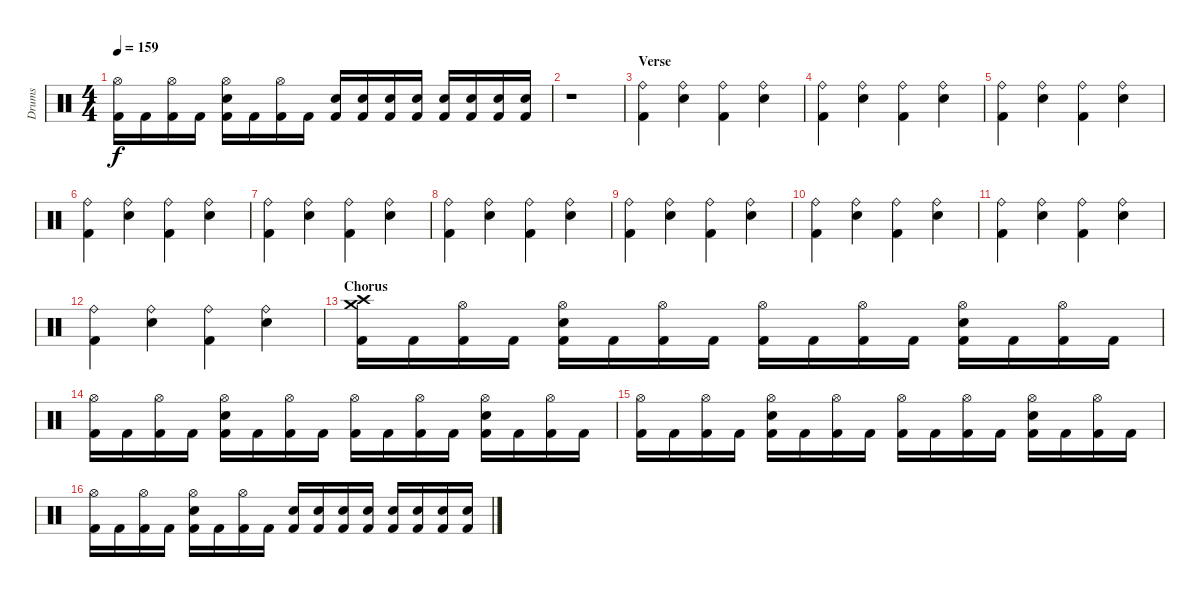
\track ("Drums" "Drums") {instrument percussion}
\staff {score}
\articulation defaults
\ts (4 4)
\tempo 159
\clef neutral
\ks c
("Hi-Hat (open)" "Kick (hit) 2").16{dy f} "Kick (hit) 2".16 ("Hi-Hat (open)" "Kick (hit) 2").16 "Kick (hit) 2".16 ("Hi-Hat (open)" "Electric Snare (hit)" "Kick (hit) 2").16 "Kick (hit) 2".16 ("Hi-Hat (open)" "Kick (hit) 2").16 "Kick (hit) 2".16 ("Electric Snare (hit)" "Kick (hit) 2").16 ("Electric Snare (hit)" "Kick (hit) 2").16 ("Electric Snare (hit)" "Kick (hit) 2").16 ("Electric Snare (hit)" "Kick (hit) 2").16 ("Electric Snare (hit)" "Kick (hit) 2").16 ("Electric Snare (hit)" "Kick (hit) 2").16 ("Electric Snare (hit)" "Kick (hit) 2").16 ("Electric Snare (hit)" "Kick (hit) 2").16 |
\section ("" "")
r.1 |
\section ("" "Verse")
("Ride (bell)" "Kick (hit) 2").4 ("Ride (bell)" "Electric Snare (hit)").4 ("Ride (bell)" "Kick (hit) 2").4 ("Ride (bell)" "Electric Snare (hit)").4 |
("Ride (bell)" "Kick (hit) 2").4 ("Ride (bell)" "Electric Snare (hit)").4 ("Ride (bell)" "Kick (hit) 2").4 ("Ride (bell)" "Electric Snare (hit)").4 |
("Ride (bell)" "Kick (hit) 2").4 ("Ride (bell)" "Electric Snare (hit)").4 ("Ride (bell)" "Kick (hit) 2").4 ("Ride (bell)" "Electric Snare (hit)").4 |
("Ride (bell)" "Kick (hit) 2").4 ("Ride (bell)" "Electric Snare (hit)").4 ("Ride (bell)" "Kick (hit) 2").4 ("Ride (bell)" "Electric Snare (hit)").4 |
("Ride (bell)" "Kick (hit) 2").4 ("Ride (bell)" "Electric Snare (hit)").4 ("Ride (bell)" "Kick (hit) 2").4 ("Ride (bell)" "Electric Snare (hit)").4 |
("Ride (bell)" "Kick (hit) 2").4 ("Ride (bell)" "Electric Snare (hit)").4 ("Ride (bell)" "Kick (hit) 2").4 ("Ride (bell)" "Electric Snare (hit)").4 |
("Ride (bell)" "Kick (hit) 2").4 ("Ride (bell)" "Electric Snare (hit)").4 ("Ride (bell)" "Kick (hit) 2").4 ("Ride (bell)" "Electric Snare (hit)").4 |
("Ride (bell)" "Kick (hit) 2").4 ("Ride (bell)" "Electric Snare (hit)").4 ("Ride (bell)" "Kick (hit) 2").4 ("Ride (bell)" "Electric Snare (hit)").4 |
("Ride (bell)" "Kick (hit) 2").4 ("Ride (bell)" "Electric Snare (hit)").4 ("Ride (bell)" "Kick (hit) 2").4 ("Ride (bell)" "Electric Snare (hit)").4 |
("Ride (bell)" "Kick (hit) 2").4 ("Ride (bell)" "Electric Snare (hit)").4 ("Ride (bell)" "Kick (hit) 2").4 ("Ride (bell)" "Electric Snare (hit)").4 |
\section ("" "Chorus")
("Crash high (hit)" "Crash medium (hit)" "Kick (hit) 2").16 "Kick (hit) 2".16 ("Hi-Hat (open)" "Kick (hit) 2").16 "Kick (hit) 2".16 ("Hi-Hat (open)" "Electric Snare (hit)" "Kick (hit) 2").16 "Kick (hit) 2".16 ("Hi-Hat (open)" "Kick (hit) 2").16 "Kick (hit) 2".16 ("Hi-Hat (open)" "Kick (hit) 2").16 "Kick (hit) 2".16 ("Hi-Hat (open)" "Kick (hit) 2").16 "Kick (hit) 2".16 ("Hi-Hat (open)" "Electric Snare (hit)" "Kick (hit) 2").16 "Kick (hit) 2".16 ("Hi-Hat (open)" "Kick (hit) 2").16 "Kick (hit) 2".16 |
("Hi-Hat (open)" "Kick (hit) 2").16 "Kick (hit) 2".16 ("Hi-Hat (open)" "Kick (hit) 2").16 "Kick (hit) 2".16 ("Hi-Hat (open)" "Electric Snare (hit)" "Kick (hit) 2").16 "Kick (hit) 2".16 ("Hi-Hat (open)" "Kick (hit) 2").16 "Kick (hit) 2".16 ("Hi-Hat (open)" "Kick (hit) 2").16 "Kick (hit) 2".16 ("Hi-Hat (open)" "Kick (hit) 2").16 "Kick (hit) 2".16 ("Hi-Hat (open)" "Electric Snare (hit)" "Kick (hit) 2").16 "Kick (hit) 2".16 ("Hi-Hat (open)" "Kick (hit) 2").16 "Kick (hit) 2".16 |
("Hi-Hat (open)" "Kick (hit) 2").16 "Kick (hit) 2".16 ("Hi-Hat (open)" "Kick (hit) 2").16 "Kick (hit) 2".16 ("Hi-Hat (open)" "Electric Snare (hit)" "Kick (hit) 2").16 "Kick (hit) 2".16 ("Hi-Hat (open)" "Kick (hit) 2").16 "Kick (hit) 2".16 ("Hi-Hat (open)" "Kick (hit) 2").16 "Kick (hit) 2".16 ("Hi-Hat (open)" "Kick (hit) 2").16 "Kick (hit) 2".16 ("Hi-Hat (open)" "Electric Snare (hit)" "Kick (hit) 2").16 "Kick (hit) 2".16 ("Hi-Hat (open)" "Kick (hit) 2").16 "Kick (hit) 2".16 |
("Hi-Hat (open)" "Kick (hit) 2").16 "Kick (hit) 2".16 ("Hi-Hat (open)" "Kick (hit) 2").16 "Kick (hit) 2".16 ("Hi-Hat (open)" "Electric Snare (hit)" "Kick (hit) 2").16 "Kick (hit) 2".16 ("Hi-Hat (open)" "Kick (hit) 2").16 "Kick (hit) 2".16 ("Electric Snare (hit)" "Kick (hit) 2").16 ("Electric Snare (hit)" "Kick (hit) 2").16 ("Electric Snare (hit)" "Kick (hit) 2").16 ("Electric Snare (hit)" "Kick (hit) 2").16 ("Electric Snare (hit)" "Kick (hit) 2").16 ("Electric Snare (hit)" "Kick (hit) 2").16 ("Electric Snare (hit)" "Kick (hit) 2").16 ("Electric Snare (hit)" "Kick (hit) 2").16
